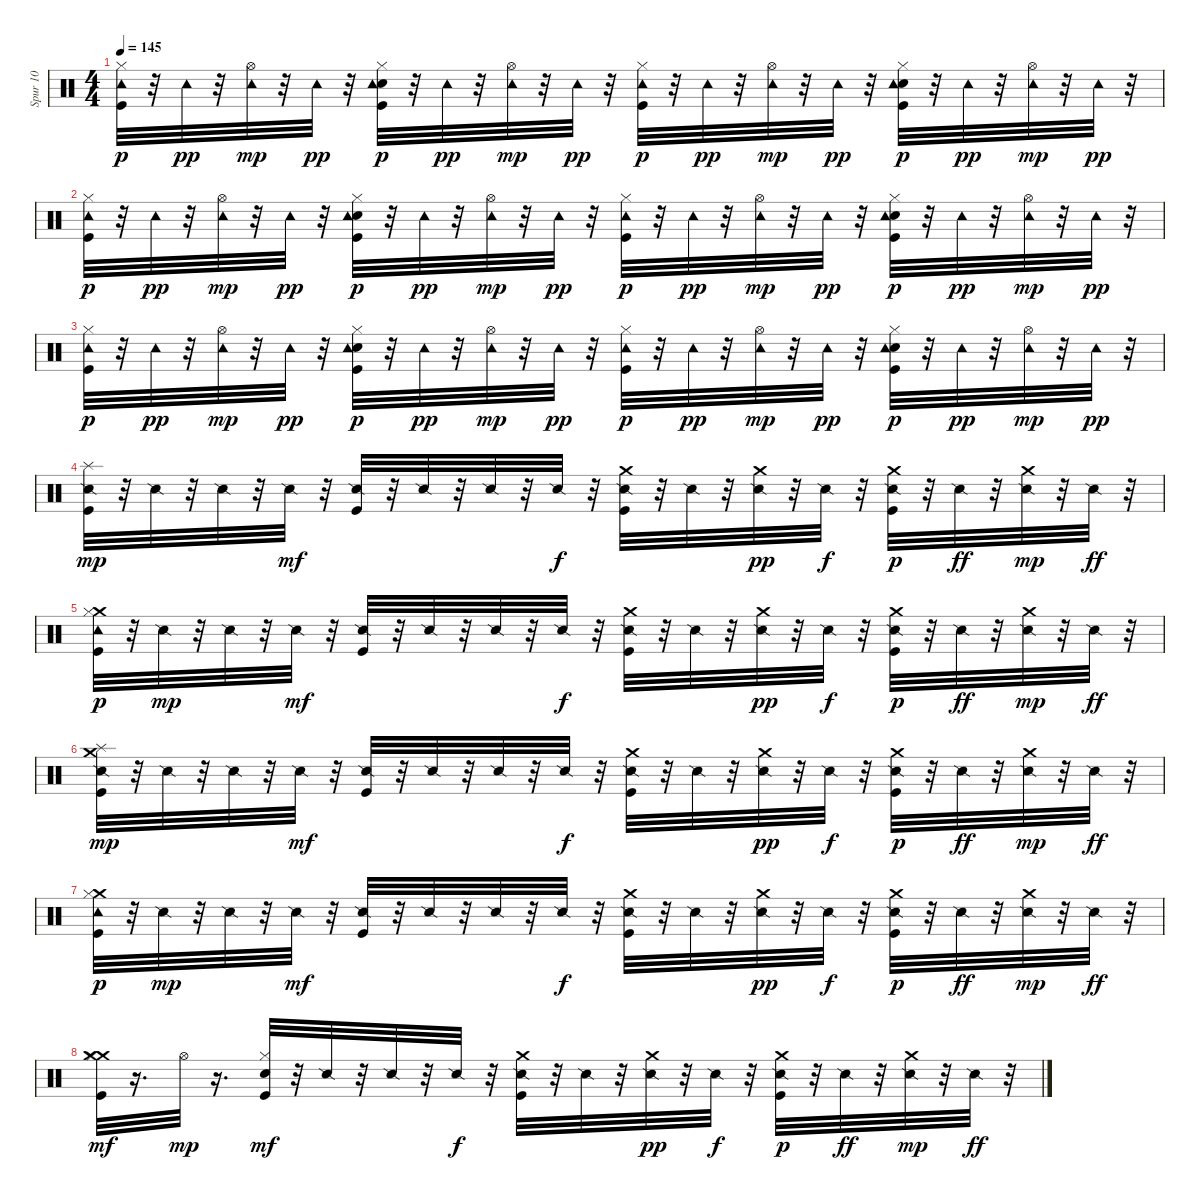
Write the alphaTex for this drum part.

\track ("Spur 10" "Spur 10") {instrument percussion}
\staff {score}
\articulation defaults
\ts (4 4)
\tempo 145
\clef neutral
\ks c
("Kick (hit)" "Hi-Hat (closed)" "Tambourine (hit)").32{dy p} r.32 "Tambourine (hit)".32{dy pp} r.32 ("Hi-Hat (open)" "Tambourine (hit)").32{dy mp} r.32 "Tambourine (hit)".32{dy pp} r.32 ("Kick (hit)" "Snare (hit) 2" "Hi-Hat (closed)" "Tambourine (hit)").32{dy p} r.32 "Tambourine (hit)".32{dy pp} r.32 ("Hi-Hat (open)" "Tambourine (hit)").32{dy mp} r.32 "Tambourine (hit)".32{dy pp} r.32 ("Kick (hit)" "Hi-Hat (closed)" "Tambourine (hit)").32{dy p} r.32 "Tambourine (hit)".32{dy pp} r.32 ("Hi-Hat (open)" "Tambourine (hit)").32{dy mp} r.32 "Tambourine (hit)".32{dy pp} r.32 ("Kick (hit)" "Snare (hit) 2" "Hi-Hat (closed)" "Tambourine (hit)").32{dy p} r.32 "Tambourine (hit)".32{dy pp} r.32 ("Hi-Hat (open)" "Tambourine (hit)").32{dy mp} r.32 "Tambourine (hit)".32{dy pp} r.32 |
("Kick (hit)" "Hi-Hat (closed)" "Tambourine (hit)").32{dy p} r.32 "Tambourine (hit)".32{dy pp} r.32 ("Hi-Hat (open)" "Tambourine (hit)").32{dy mp} r.32 "Tambourine (hit)".32{dy pp} r.32 ("Kick (hit)" "Snare (hit) 2" "Hi-Hat (closed)" "Tambourine (hit)").32{dy p} r.32 "Tambourine (hit)".32{dy pp} r.32 ("Hi-Hat (open)" "Tambourine (hit)").32{dy mp} r.32 "Tambourine (hit)".32{dy pp} r.32 ("Kick (hit)" "Hi-Hat (closed)" "Tambourine (hit)").32{dy p} r.32 "Tambourine (hit)".32{dy pp} r.32 ("Hi-Hat (open)" "Tambourine (hit)").32{dy mp} r.32 "Tambourine (hit)".32{dy pp} r.32 ("Kick (hit)" "Snare (hit) 2" "Hi-Hat (closed)" "Tambourine (hit)").32{dy p} r.32 "Tambourine (hit)".32{dy pp} r.32 ("Hi-Hat (open)" "Tambourine (hit)").32{dy mp} r.32 "Tambourine (hit)".32{dy pp} r.32 |
("Kick (hit)" "Hi-Hat (closed)" "Tambourine (hit)").32{dy p} r.32 "Tambourine (hit)".32{dy pp} r.32 ("Hi-Hat (open)" "Tambourine (hit)").32{dy mp} r.32 "Tambourine (hit)".32{dy pp} r.32 ("Kick (hit)" "Snare (hit) 2" "Hi-Hat (closed)" "Tambourine (hit)").32{dy p} r.32 "Tambourine (hit)".32{dy pp} r.32 ("Hi-Hat (open)" "Tambourine (hit)").32{dy mp} r.32 "Tambourine (hit)".32{dy pp} r.32 ("Kick (hit)" "Hi-Hat (closed)" "Tambourine (hit)").32{dy p} r.32 "Tambourine (hit)".32{dy pp} r.32 ("Hi-Hat (open)" "Tambourine (hit)").32{dy mp} r.32 "Tambourine (hit)".32{dy pp} r.32 ("Kick (hit)" "Snare (hit) 2" "Hi-Hat (closed)" "Tambourine (hit)").32{dy p} r.32 "Tambourine (hit)".32{dy pp} r.32 ("Hi-Hat (open)" "Tambourine (hit)").32{dy mp} r.32 "Tambourine (hit)".32{dy pp} r.32 |
("Snare (side stick) 2" "Kick (hit)" "Splash (hit)").32{dy mp} r.32 "Snare (side stick) 2".32 r.32 "Snare (side stick) 2".32 r.32 "Snare (side stick) 2".32{dy mf} r.32 ("Snare (side stick) 2" "Kick (hit)").32 r.32 "Snare (side stick) 2".32 r.32 "Snare (side stick) 2".32 r.32 "Snare (side stick) 2".32{dy f} r.32 ("Snare (side stick) 2" "Kick (hit)" "Crash medium (hit)").32{balance 10} r.32 "Snare (side stick) 2".32 r.32 ("Snare (side stick) 2" "Crash medium (hit)").32{dy pp balance 14} r.32 "Snare (side stick) 2".32{dy f} r.32 ("Snare (side stick) 2" "Kick (hit)" "Crash medium (hit)").32{dy p balance 7} r.32 "Snare (side stick) 2".32{dy ff} r.32 ("Snare (side stick) 2" "Crash medium (hit)").32{dy mp balance 0} r.32 "Snare (side stick) 2".32{dy ff} r.32 |
("Crash medium (hit)" "Kick (hit)" "Hi-Hat (closed)" "Tambourine (hit)").32{dy p balance 8} r.32 "Snare (side stick) 2".32{dy mp} r.32 "Snare (side stick) 2".32 r.32 "Snare (side stick) 2".32{dy mf} r.32 ("Snare (side stick) 2" "Kick (hit)").32 r.32 "Snare (side stick) 2".32 r.32 "Snare (side stick) 2".32 r.32 "Snare (side stick) 2".32{dy f} r.32 ("Snare (side stick) 2" "Kick (hit)" "Crash medium (hit)").32{balance 10} r.32 "Snare (side stick) 2".32 r.32 ("Snare (side stick) 2" "Crash medium (hit)").32{dy pp balance 14} r.32 "Snare (side stick) 2".32{dy f} r.32 ("Snare (side stick) 2" "Kick (hit)" "Crash medium (hit)").32{dy p balance 7} r.32 "Snare (side stick) 2".32{dy ff} r.32 ("Snare (side stick) 2" "Crash medium (hit)").32{dy mp balance 0} r.32 "Snare (side stick) 2".32{dy ff} r.32 |
("Crash medium (hit)" "Snare (side stick) 2" "Kick (hit)" "Splash (hit)").32{dy mp balance 8} r.32 "Snare (side stick) 2".32 r.32 "Snare (side stick) 2".32 r.32 "Snare (side stick) 2".32{dy mf} r.32 ("Snare (side stick) 2" "Kick (hit)").32 r.32 "Snare (side stick) 2".32 r.32 "Snare (side stick) 2".32 r.32 "Snare (side stick) 2".32{dy f} r.32 ("Snare (side stick) 2" "Kick (hit)" "Crash medium (hit)").32{balance 10} r.32 "Snare (side stick) 2".32 r.32 ("Snare (side stick) 2" "Crash medium (hit)").32{dy pp balance 14} r.32 "Snare (side stick) 2".32{dy f} r.32 ("Snare (side stick) 2" "Kick (hit)" "Crash medium (hit)").32{dy p balance 7} r.32 "Snare (side stick) 2".32{dy ff} r.32 ("Snare (side stick) 2" "Crash medium (hit)").32{dy mp balance 0} r.32 "Snare (side stick) 2".32{dy ff} r.32 |
("Crash medium (hit)" "Kick (hit)" "Hi-Hat (closed)" "Tambourine (hit)").32{dy p balance 8} r.32 "Snare (side stick) 2".32{dy mp} r.32 "Snare (side stick) 2".32 r.32 "Snare (side stick) 2".32{dy mf} r.32 ("Snare (side stick) 2" "Kick (hit)").32 r.32 "Snare (side stick) 2".32 r.32 "Snare (side stick) 2".32 r.32 "Snare (side stick) 2".32{dy f} r.32 ("Snare (side stick) 2" "Kick (hit)" "Crash medium (hit)").32{balance 10} r.32 "Snare (side stick) 2".32 r.32 ("Snare (side stick) 2" "Crash medium (hit)").32{dy pp balance 14} r.32 "Snare (side stick) 2".32{dy f} r.32 ("Snare (side stick) 2" "Kick (hit)" "Crash medium (hit)").32{dy p balance 7} r.32 "Snare (side stick) 2".32{dy ff} r.32 ("Snare (side stick) 2" "Crash medium (hit)").32{dy mp balance 0} r.32 "Snare (side stick) 2".32{dy ff} r.32 |
("Crash medium (hit)" "Kick (hit)" "Hi-Hat (closed)" "Crash medium (hit)").32{dy mf balance 8} r.16{d} "Hi-Hat (open)".32{dy mp} r.16{d} ("Kick (hit)" "Snare (hit) 2" "Hi-Hat (closed)").32{dy mf} r.32 "Snare (side stick) 2".32 r.32 "Snare (side stick) 2".32 r.32 "Snare (side stick) 2".32{dy f} r.32 ("Snare (side stick) 2" "Kick (hit)" "Crash medium (hit)").32{balance 10} r.32 "Snare (side stick) 2".32 r.32 ("Snare (side stick) 2" "Crash medium (hit)").32{dy pp balance 14} r.32 "Snare (side stick) 2".32{dy f} r.32 ("Snare (side stick) 2" "Kick (hit)" "Crash medium (hit)").32{dy p balance 7} r.32 "Snare (side stick) 2".32{dy ff} r.32 ("Snare (side stick) 2" "Crash medium (hit)").32{dy mp balance 0} r.32 "Snare (side stick) 2".32{dy ff} r.32
